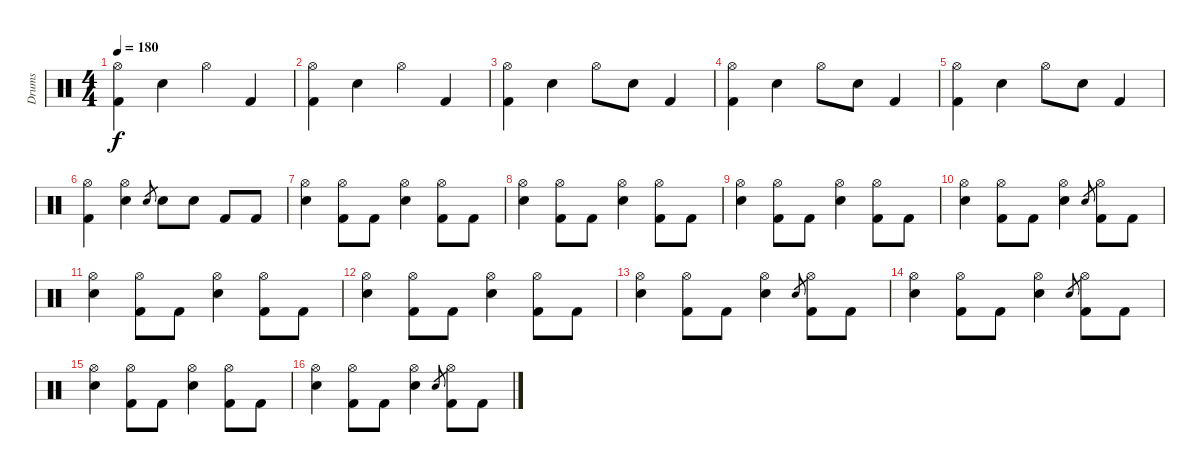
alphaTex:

\track ("Drums" "Drums") {instrument percussion}
\staff {score}
\articulation defaults
\ts (4 4)
\tempo 180
\clef neutral
\ks c
("Hi-Hat (open)" "Kick (hit) 2").4{dy f} "Snare (hit) 2".4 "Hi-Hat (open)".4 "Kick (hit) 2".4 |
("Hi-Hat (open)" "Kick (hit) 2").4 "Snare (hit) 2".4 "Hi-Hat (open)".4 "Kick (hit) 2".4 |
("Hi-Hat (open)" "Kick (hit) 2").4 "Snare (hit) 2".4 "Hi-Hat (open)".8 "Snare (hit) 2".8 "Kick (hit) 2".4 |
("Hi-Hat (open)" "Kick (hit) 2").4 "Snare (hit) 2".4 "Hi-Hat (open)".8 "Snare (hit) 2".8 "Kick (hit) 2".4 |
("Hi-Hat (open)" "Kick (hit) 2").4 "Snare (hit) 2".4 "Hi-Hat (open)".8 "Snare (hit) 2".8 "Kick (hit) 2".4 |
("Hi-Hat (open)" "Kick (hit) 2").4 ("Hi-Hat (open)" "Snare (hit) 2").4 "Snare (hit) 2".8{gr} "Snare (hit) 2".8 "Snare (hit) 2".8 "Kick (hit) 2".8 "Kick (hit) 2".8 |
("Hi-Hat (open)" "Snare (hit) 2").4 ("Hi-Hat (open)" "Kick (hit) 2").8 "Kick (hit) 2".8 ("Hi-Hat (open)" "Snare (hit) 2").4 ("Hi-Hat (open)" "Kick (hit) 2").8 "Kick (hit) 2".8 |
("Hi-Hat (open)" "Snare (hit) 2").4 ("Hi-Hat (open)" "Kick (hit) 2").8 "Kick (hit) 2".8 ("Hi-Hat (open)" "Snare (hit) 2").4 ("Hi-Hat (open)" "Kick (hit) 2").8 "Kick (hit) 2".8 |
("Hi-Hat (open)" "Snare (hit) 2").4 ("Hi-Hat (open)" "Kick (hit) 2").8 "Kick (hit) 2".8 ("Hi-Hat (open)" "Snare (hit) 2").4 ("Hi-Hat (open)" "Kick (hit) 2").8 "Kick (hit) 2".8 |
("Hi-Hat (open)" "Snare (hit) 2").4 ("Hi-Hat (open)" "Kick (hit) 2").8 "Kick (hit) 2".8 ("Hi-Hat (open)" "Snare (hit) 2").4 "Snare (hit) 2".8{gr} ("Hi-Hat (open)" "Kick (hit) 2").8 "Kick (hit) 2".8 |
("Hi-Hat (open)" "Snare (hit) 2").4 ("Hi-Hat (open)" "Kick (hit) 2").8 "Kick (hit) 2".8 ("Hi-Hat (open)" "Snare (hit) 2").4 ("Hi-Hat (open)" "Kick (hit) 2").8 "Kick (hit) 2".8 |
("Hi-Hat (open)" "Snare (hit) 2").4 ("Hi-Hat (open)" "Kick (hit) 2").8 "Kick (hit) 2".8 ("Hi-Hat (open)" "Snare (hit) 2").4 ("Hi-Hat (open)" "Kick (hit) 2").8 "Kick (hit) 2".8 |
("Hi-Hat (open)" "Snare (hit) 2").4 ("Hi-Hat (open)" "Kick (hit) 2").8 "Kick (hit) 2".8 ("Hi-Hat (open)" "Snare (hit) 2").4 "Snare (hit) 2".8{gr} ("Hi-Hat (open)" "Kick (hit) 2").8 "Kick (hit) 2".8 |
("Hi-Hat (open)" "Snare (hit) 2").4 ("Hi-Hat (open)" "Kick (hit) 2").8 "Kick (hit) 2".8 ("Hi-Hat (open)" "Snare (hit) 2").4 "Snare (hit) 2".8{gr} ("Hi-Hat (open)" "Kick (hit) 2").8 "Kick (hit) 2".8 |
("Hi-Hat (open)" "Snare (hit) 2").4 ("Hi-Hat (open)" "Kick (hit) 2").8 "Kick (hit) 2".8 ("Hi-Hat (open)" "Snare (hit) 2").4 ("Hi-Hat (open)" "Kick (hit) 2").8 "Kick (hit) 2".8 |
("Hi-Hat (open)" "Snare (hit) 2").4 ("Hi-Hat (open)" "Kick (hit) 2").8 "Kick (hit) 2".8 ("Hi-Hat (open)" "Snare (hit) 2").4 "Snare (hit) 2".8{gr} ("Hi-Hat (open)" "Kick (hit) 2").8 "Kick (hit) 2".8
